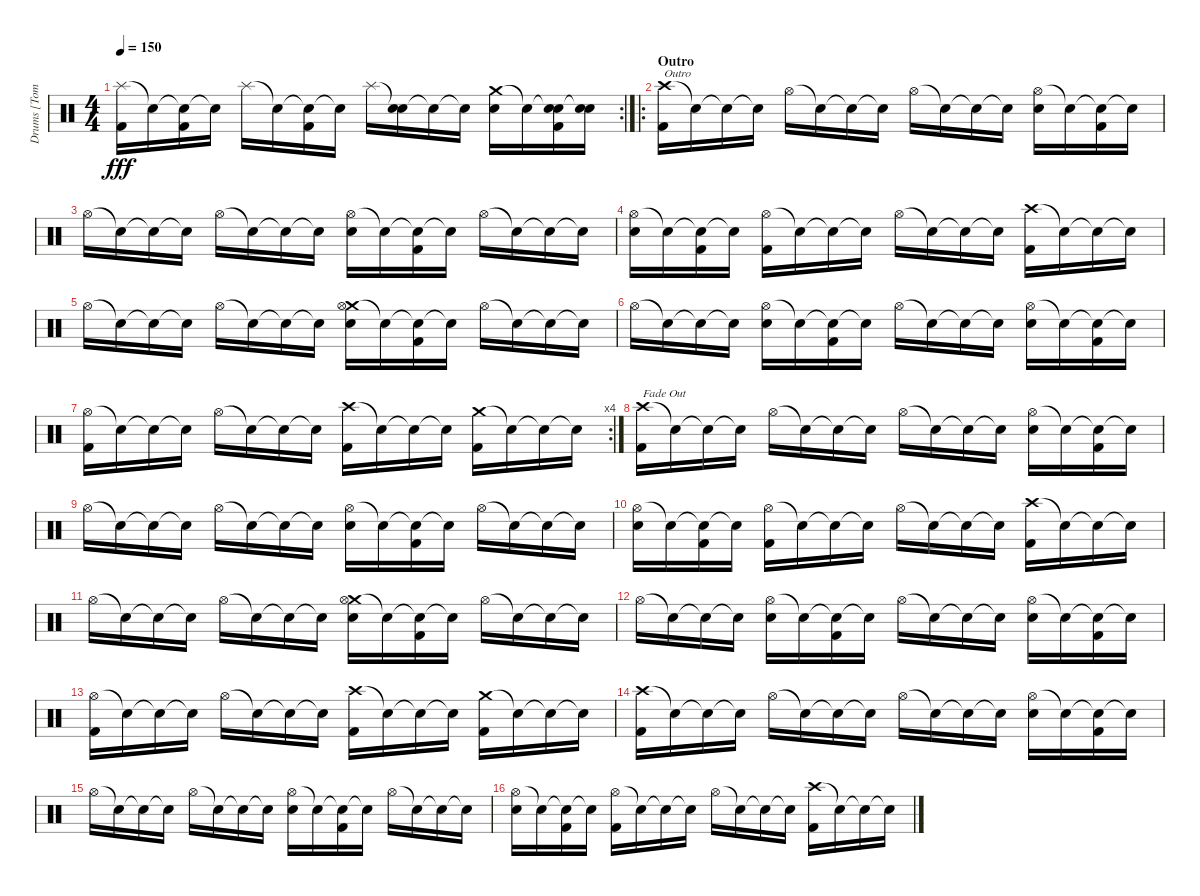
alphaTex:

\track ("Drums [Tomas Haake]" "Drums [Tom") {instrument percussion}
\staff {score}
\articulation defaults
\rc 2
\ts (4 4)
\tempo 150
\clef neutral
\ks c
("Splash (hit)" "Kick (hit) 2").16{dy fff} "Snare (hit)"{t}.16 ("Snare (hit)"{t} "Kick (hit) 2").16 "Snare (hit)"{t}.16 "Splash (hit)".16 "Snare (hit)"{t}.16 ("Snare (hit)"{t} "Kick (hit) 2").16 "Snare (hit)"{t}.16 "Splash (hit)".16 ("Snare (hit)"{t} "Electric Snare (hit)").16 "Snare (hit)"{t}.16 "Snare (hit)"{t}.16 ("Crash medium (hit)" "Electric Snare (hit)").16 "Snare (hit)"{t}.16 ("Snare (hit)"{t} "Electric Snare (hit)" "Kick (hit) 2").16 ("Snare (hit)"{t} "Electric Snare (hit)").16 |
\ro
\section ("" "Outro")
("Crash high (hit)" "Kick (hit) 2").16{txt "Outro"} "Snare (hit)"{t}.16 "Snare (hit)"{t}.16 "Snare (hit)"{t}.16 "Hi-Hat (open)".16 "Snare (hit)"{t}.16 "Snare (hit)"{t}.16 "Snare (hit)"{t}.16 "Hi-Hat (open)".16 "Snare (hit)"{t}.16 "Snare (hit)"{t}.16 "Snare (hit)"{t}.16 ("Hi-Hat (open)" "Electric Snare (hit)").16 "Snare (hit)"{t}.16 ("Snare (hit)"{t} "Kick (hit) 2").16 "Snare (hit)"{t}.16 |
"Hi-Hat (open)".16 "Snare (hit)"{t}.16 "Snare (hit)"{t}.16 "Snare (hit)"{t}.16 "Hi-Hat (open)".16 "Snare (hit)"{t}.16 "Snare (hit)"{t}.16 "Snare (hit)"{t}.16 ("Hi-Hat (open)" "Electric Snare (hit)").16 "Snare (hit)"{t}.16 ("Snare (hit)"{t} "Kick (hit) 2").16 "Snare (hit)"{t}.16 "Hi-Hat (open)".16 "Snare (hit)"{t}.16 "Snare (hit)"{t}.16 "Snare (hit)"{t}.16 |
("Hi-Hat (open)" "Electric Snare (hit)").16 "Snare (hit)"{t}.16 ("Snare (hit)"{t} "Kick (hit) 2").16 "Snare (hit)"{t}.16 ("Hi-Hat (open)" "Kick (hit) 2").16 "Snare (hit)"{t}.16 "Snare (hit)"{t}.16 "Snare (hit)"{t}.16 "Hi-Hat (open)".16 "Snare (hit)"{t}.16 "Snare (hit)"{t}.16 "Snare (hit)"{t}.16 ("Crash high (hit)" "Kick (hit) 2").16 "Snare (hit)"{t}.16 "Snare (hit)"{t}.16 "Snare (hit)"{t}.16 |
"Hi-Hat (open)".16 "Snare (hit)"{t}.16 "Snare (hit)"{t}.16 "Snare (hit)"{t}.16 "Hi-Hat (open)".16 "Snare (hit)"{t}.16 "Snare (hit)"{t}.16 "Snare (hit)"{t}.16 ("Crash medium (hit)" "Hi-Hat (open)" "Electric Snare (hit)").16 "Snare (hit)"{t}.16 ("Snare (hit)"{t} "Kick (hit) 2").16 "Snare (hit)"{t}.16 "Hi-Hat (open)".16 "Snare (hit)"{t}.16 "Snare (hit)"{t}.16 "Snare (hit)"{t}.16 |
"Hi-Hat (open)".16 "Snare (hit)"{t}.16 "Snare (hit)"{t}.16 "Snare (hit)"{t}.16 ("Hi-Hat (open)" "Electric Snare (hit)").16 "Snare (hit)"{t}.16 ("Snare (hit)"{t} "Kick (hit) 2").16 "Snare (hit)"{t}.16 "Hi-Hat (open)".16 "Snare (hit)"{t}.16 "Snare (hit)"{t}.16 "Snare (hit)"{t}.16 ("Hi-Hat (open)" "Electric Snare (hit)").16 "Snare (hit)"{t}.16 ("Snare (hit)"{t} "Kick (hit) 2").16 "Snare (hit)"{t}.16 |
\rc 4
("Hi-Hat (open)" "Kick (hit) 2").16 "Snare (hit)"{t}.16 "Snare (hit)"{t}.16 "Snare (hit)"{t}.16 "Hi-Hat (open)".16 "Snare (hit)"{t}.16 "Snare (hit)"{t}.16 "Snare (hit)"{t}.16 ("Crash high (hit)" "Kick (hit) 2").16 "Snare (hit)"{t}.16 "Snare (hit)"{t}.16 "Snare (hit)"{t}.16 ("Crash medium (hit)" "Kick (hit) 2").16 "Snare (hit)"{t}.16 "Snare (hit)"{t}.16 "Snare (hit)"{t}.16 |
("Crash high (hit)" "Kick (hit) 2").16{txt "Fade Out"} "Snare (hit)"{t}.16 "Snare (hit)"{t}.16 "Snare (hit)"{t}.16 "Hi-Hat (open)".16 "Snare (hit)"{t}.16 "Snare (hit)"{t}.16 "Snare (hit)"{t}.16 "Hi-Hat (open)".16 "Snare (hit)"{t}.16 "Snare (hit)"{t}.16 "Snare (hit)"{t}.16 ("Hi-Hat (open)" "Electric Snare (hit)").16 "Snare (hit)"{t}.16 ("Snare (hit)"{t} "Kick (hit) 2").16 "Snare (hit)"{t}.16 |
"Hi-Hat (open)".16 "Snare (hit)"{t}.16 "Snare (hit)"{t}.16 "Snare (hit)"{t}.16 "Hi-Hat (open)".16 "Snare (hit)"{t}.16 "Snare (hit)"{t}.16 "Snare (hit)"{t}.16 ("Hi-Hat (open)" "Electric Snare (hit)").16 "Snare (hit)"{t}.16 ("Snare (hit)"{t} "Kick (hit) 2").16 "Snare (hit)"{t}.16 "Hi-Hat (open)".16 "Snare (hit)"{t}.16 "Snare (hit)"{t}.16 "Snare (hit)"{t}.16 |
("Hi-Hat (open)" "Electric Snare (hit)").16 "Snare (hit)"{t}.16 ("Snare (hit)"{t} "Kick (hit) 2").16 "Snare (hit)"{t}.16 ("Hi-Hat (open)" "Kick (hit) 2").16 "Snare (hit)"{t}.16 "Snare (hit)"{t}.16 "Snare (hit)"{t}.16 "Hi-Hat (open)".16 "Snare (hit)"{t}.16 "Snare (hit)"{t}.16 "Snare (hit)"{t}.16 ("Crash high (hit)" "Kick (hit) 2").16 "Snare (hit)"{t}.16 "Snare (hit)"{t}.16 "Snare (hit)"{t}.16 |
"Hi-Hat (open)".16 "Snare (hit)"{t}.16 "Snare (hit)"{t}.16 "Snare (hit)"{t}.16 "Hi-Hat (open)".16 "Snare (hit)"{t}.16 "Snare (hit)"{t}.16 "Snare (hit)"{t}.16 ("Crash medium (hit)" "Hi-Hat (open)" "Electric Snare (hit)").16 "Snare (hit)"{t}.16 ("Snare (hit)"{t} "Kick (hit) 2").16 "Snare (hit)"{t}.16 "Hi-Hat (open)".16 "Snare (hit)"{t}.16 "Snare (hit)"{t}.16 "Snare (hit)"{t}.16 |
"Hi-Hat (open)".16 "Snare (hit)"{t}.16 "Snare (hit)"{t}.16 "Snare (hit)"{t}.16 ("Hi-Hat (open)" "Electric Snare (hit)").16 "Snare (hit)"{t}.16 ("Snare (hit)"{t} "Kick (hit) 2").16 "Snare (hit)"{t}.16 "Hi-Hat (open)".16 "Snare (hit)"{t}.16 "Snare (hit)"{t}.16 "Snare (hit)"{t}.16 ("Hi-Hat (open)" "Electric Snare (hit)").16 "Snare (hit)"{t}.16 ("Snare (hit)"{t} "Kick (hit) 2").16 "Snare (hit)"{t}.16 |
("Hi-Hat (open)" "Kick (hit) 2").16 "Snare (hit)"{t}.16 "Snare (hit)"{t}.16 "Snare (hit)"{t}.16 "Hi-Hat (open)".16 "Snare (hit)"{t}.16 "Snare (hit)"{t}.16 "Snare (hit)"{t}.16 ("Crash high (hit)" "Kick (hit) 2").16 "Snare (hit)"{t}.16 "Snare (hit)"{t}.16 "Snare (hit)"{t}.16 ("Crash medium (hit)" "Kick (hit) 2").16 "Snare (hit)"{t}.16 "Snare (hit)"{t}.16 "Snare (hit)"{t}.16 |
("Crash high (hit)" "Kick (hit) 2").16 "Snare (hit)"{t}.16 "Snare (hit)"{t}.16 "Snare (hit)"{t}.16 "Hi-Hat (open)".16 "Snare (hit)"{t}.16 "Snare (hit)"{t}.16 "Snare (hit)"{t}.16 "Hi-Hat (open)".16 "Snare (hit)"{t}.16 "Snare (hit)"{t}.16 "Snare (hit)"{t}.16 ("Hi-Hat (open)" "Electric Snare (hit)").16 "Snare (hit)"{t}.16 ("Snare (hit)"{t} "Kick (hit) 2").16 "Snare (hit)"{t}.16 |
"Hi-Hat (open)".16 "Snare (hit)"{t}.16 "Snare (hit)"{t}.16 "Snare (hit)"{t}.16 "Hi-Hat (open)".16 "Snare (hit)"{t}.16 "Snare (hit)"{t}.16 "Snare (hit)"{t}.16 ("Hi-Hat (open)" "Electric Snare (hit)").16 "Snare (hit)"{t}.16 ("Snare (hit)"{t} "Kick (hit) 2").16 "Snare (hit)"{t}.16 "Hi-Hat (open)".16 "Snare (hit)"{t}.16 "Snare (hit)"{t}.16 "Snare (hit)"{t}.16 |
("Hi-Hat (open)" "Electric Snare (hit)").16 "Snare (hit)"{t}.16 ("Snare (hit)"{t} "Kick (hit) 2").16 "Snare (hit)"{t}.16 ("Hi-Hat (open)" "Kick (hit) 2").16 "Snare (hit)"{t}.16 "Snare (hit)"{t}.16 "Snare (hit)"{t}.16 "Hi-Hat (open)".16 "Snare (hit)"{t}.16 "Snare (hit)"{t}.16 "Snare (hit)"{t}.16 ("Crash high (hit)" "Kick (hit) 2").16 "Snare (hit)"{t}.16 "Snare (hit)"{t}.16 "Snare (hit)"{t}.16
